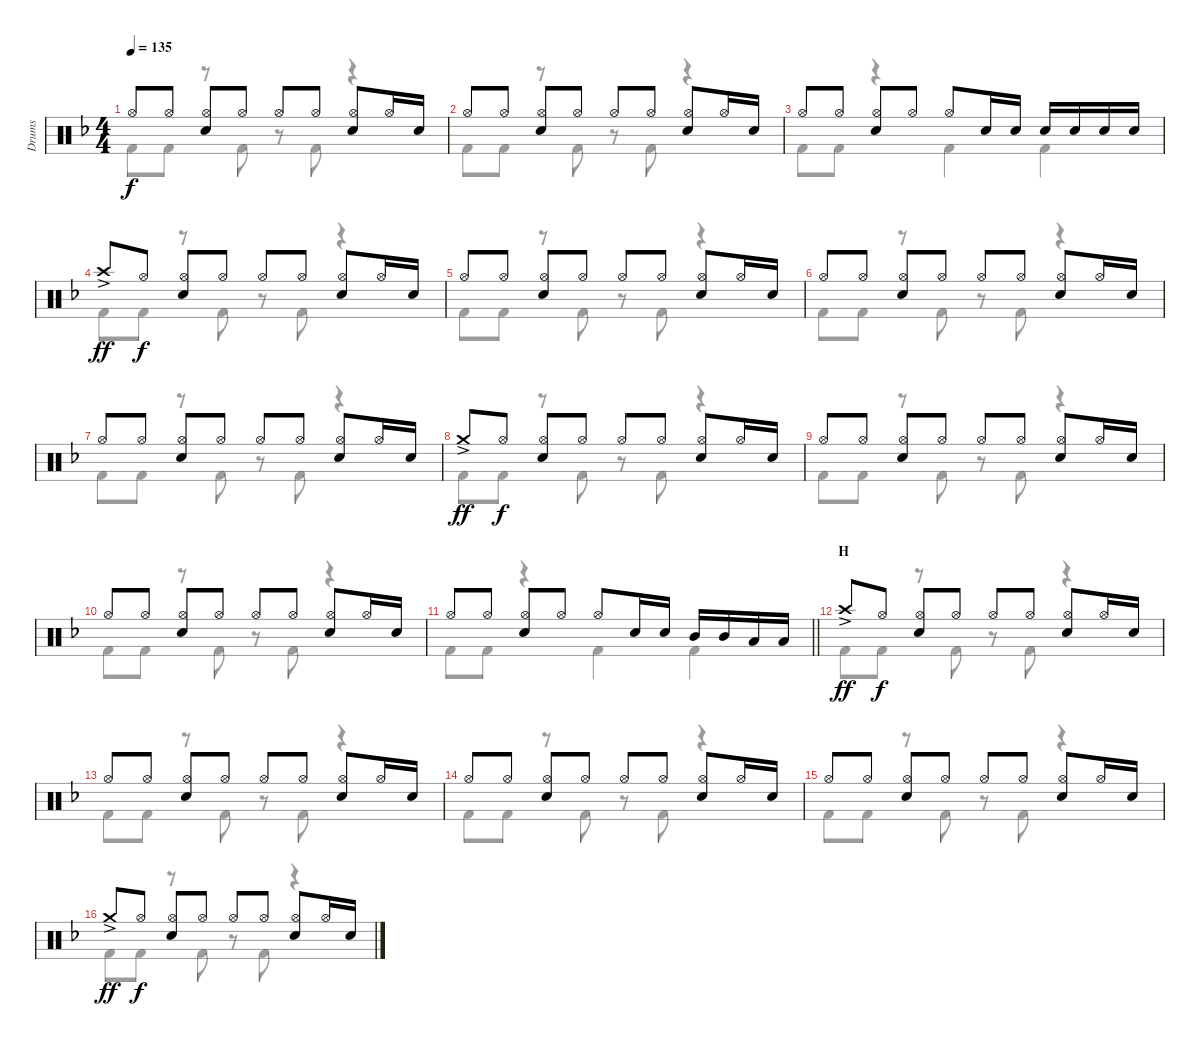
\track ("Drums" "Drums") {instrument percussion}
\staff {score}
\articulation defaults
\voice
\ts (4 4)
\tempo 135
\clef neutral
\ks f "Hi-Hat (open)".8{dy f} "Hi-Hat (open)".8
("Hi-Hat (open)" "Snare (hit) 2").8 "Hi-Hat (open)".8 "Hi-Hat (open)".8 "Hi-Hat (open)".8 ("Hi-Hat (open)" "Snare (hit) 2").8 "Hi-Hat (open)".16 "Snare (hit) 2".16 |
"Hi-Hat (open)".8 "Hi-Hat (open)".8 ("Hi-Hat (open)" "Snare (hit) 2").8 "Hi-Hat (open)".8 "Hi-Hat (open)".8 "Hi-Hat (open)".8 ("Hi-Hat (open)" "Snare (hit) 2").8 "Hi-Hat (open)".16 "Snare (hit) 2".16 |
"Hi-Hat (open)".8 "Hi-Hat (open)".8 ("Hi-Hat (open)" "Snare (hit) 2").8 "Hi-Hat (open)".8 "Hi-Hat (open)".8 "Snare (hit) 2".16 "Snare (hit) 2".16 "Snare (hit) 2".16 "Snare (hit) 2".16 "Snare (hit) 2".16 "Snare (hit) 2".16 |
"Crash high (hit)"{ac}.8{dy ff} "Hi-Hat (open)".8{dy f} ("Hi-Hat (open)" "Snare (hit) 2").8 "Hi-Hat (open)".8 "Hi-Hat (open)".8 "Hi-Hat (open)".8 ("Hi-Hat (open)" "Snare (hit) 2").8 "Hi-Hat (open)".16 "Snare (hit) 2".16 |
"Hi-Hat (open)".8 "Hi-Hat (open)".8 ("Hi-Hat (open)" "Snare (hit) 2").8 "Hi-Hat (open)".8 "Hi-Hat (open)".8 "Hi-Hat (open)".8 ("Hi-Hat (open)" "Snare (hit) 2").8 "Hi-Hat (open)".16 "Snare (hit) 2".16 |
"Hi-Hat (open)".8 "Hi-Hat (open)".8 ("Hi-Hat (open)" "Snare (hit) 2").8 "Hi-Hat (open)".8 "Hi-Hat (open)".8 "Hi-Hat (open)".8 ("Hi-Hat (open)" "Snare (hit) 2").8 "Hi-Hat (open)".16 "Snare (hit) 2".16 |
"Hi-Hat (open)".8 "Hi-Hat (open)".8 ("Hi-Hat (open)" "Snare (hit) 2").8 "Hi-Hat (open)".8 "Hi-Hat (open)".8 "Hi-Hat (open)".8 ("Hi-Hat (open)" "Snare (hit) 2").8 "Hi-Hat (open)".16 "Snare (hit) 2".16 |
"Crash medium (hit)"{ac}.8{dy ff} "Hi-Hat (open)".8{dy f} ("Hi-Hat (open)" "Snare (hit) 2").8 "Hi-Hat (open)".8 "Hi-Hat (open)".8 "Hi-Hat (open)".8 ("Hi-Hat (open)" "Snare (hit) 2").8 "Hi-Hat (open)".16 "Snare (hit) 2".16 |
"Hi-Hat (open)".8 "Hi-Hat (open)".8 ("Hi-Hat (open)" "Snare (hit) 2").8 "Hi-Hat (open)".8 "Hi-Hat (open)".8 "Hi-Hat (open)".8 ("Hi-Hat (open)" "Snare (hit) 2").8 "Hi-Hat (open)".16 "Snare (hit) 2".16 |
"Hi-Hat (open)".8 "Hi-Hat (open)".8 ("Hi-Hat (open)" "Snare (hit) 2").8 "Hi-Hat (open)".8 "Hi-Hat (open)".8 "Hi-Hat (open)".8 ("Hi-Hat (open)" "Snare (hit) 2").8 "Hi-Hat (open)".16 "Snare (hit) 2".16 |
\barLineRight lightlight "Hi-Hat (open)".8 "Hi-Hat (open)".8
("Hi-Hat (open)" "Snare (hit) 2").8 "Hi-Hat (open)".8 "Hi-Hat (open)".8 "Snare (hit) 2".16 "Snare (hit) 2".16 "Mid Tom (hit)".16 "Mid Tom (hit)".16 "Low Tom (hit)".16 "Low Tom (hit)".16 |
\section ("" "H")
"Crash high (hit)"{ac}.8{dy ff} "Hi-Hat (open)".8{dy f} ("Hi-Hat (open)" "Snare (hit) 2").8 "Hi-Hat (open)".8 "Hi-Hat (open)".8 "Hi-Hat (open)".8 ("Hi-Hat (open)" "Snare (hit) 2").8 "Hi-Hat (open)".16 "Snare (hit) 2".16 |
"Hi-Hat (open)".8 "Hi-Hat (open)".8 ("Hi-Hat (open)" "Snare (hit) 2").8 "Hi-Hat (open)".8 "Hi-Hat (open)".8 "Hi-Hat (open)".8 ("Hi-Hat (open)" "Snare (hit) 2").8 "Hi-Hat (open)".16 "Snare (hit) 2".16 |
"Hi-Hat (open)".8 "Hi-Hat (open)".8 ("Hi-Hat (open)" "Snare (hit) 2").8 "Hi-Hat (open)".8 "Hi-Hat (open)".8 "Hi-Hat (open)".8 ("Hi-Hat (open)" "Snare (hit) 2").8 "Hi-Hat (open)".16 "Snare (hit) 2".16 |
"Hi-Hat (open)".8 "Hi-Hat (open)".8 ("Hi-Hat (open)" "Snare (hit) 2").8 "Hi-Hat (open)".8 "Hi-Hat (open)".8 "Hi-Hat (open)".8 ("Hi-Hat (open)" "Snare (hit) 2").8 "Hi-Hat (open)".16 "Snare (hit) 2".16 |
"Crash medium (hit)"{ac}.8{dy ff} "Hi-Hat (open)".8{dy f} ("Hi-Hat (open)" "Snare (hit) 2").8 "Hi-Hat (open)".8 "Hi-Hat (open)".8 "Hi-Hat (open)".8 ("Hi-Hat (open)" "Snare (hit) 2").8 "Hi-Hat (open)".16 "Snare (hit) 2".16
\voice
\clef neutral
\ottava regular
\simile none
\ks f "Kick (hit) 2".8{dy f} "Kick (hit) 2".8
r.8 "Kick (hit) 2".8 r.8 "Kick (hit) 2".8 r.4 |
"Kick (hit) 2".8 "Kick (hit) 2".8 r.8 "Kick (hit) 2".8 r.8 "Kick (hit) 2".8 r.4 |
"Kick (hit) 2".8 "Kick (hit) 2".8 r.4 "Kick (hit) 2".4 "Kick (hit) 2".4 |
"Kick (hit) 2".8 "Kick (hit) 2".8 r.8 "Kick (hit) 2".8 r.8 "Kick (hit) 2".8 r.4 |
"Kick (hit) 2".8 "Kick (hit) 2".8 r.8 "Kick (hit) 2".8 r.8 "Kick (hit) 2".8 r.4 |
"Kick (hit) 2".8 "Kick (hit) 2".8 r.8 "Kick (hit) 2".8 r.8 "Kick (hit) 2".8 r.4 |
"Kick (hit) 2".8 "Kick (hit) 2".8 r.8 "Kick (hit) 2".8 r.8 "Kick (hit) 2".8 r.4 |
"Kick (hit) 2".8 "Kick (hit) 2".8 r.8 "Kick (hit) 2".8 r.8 "Kick (hit) 2".8 r.4 |
"Kick (hit) 2".8 "Kick (hit) 2".8 r.8 "Kick (hit) 2".8 r.8 "Kick (hit) 2".8 r.4 |
"Kick (hit) 2".8 "Kick (hit) 2".8 r.8 "Kick (hit) 2".8 r.8 "Kick (hit) 2".8 r.4 |
\barLineRight lightlight "Kick (hit) 2".8 "Kick (hit) 2".8
r.4 "Kick (hit) 2".4 "Kick (hit) 2".4 |
"Kick (hit) 2".8 "Kick (hit) 2".8 r.8 "Kick (hit) 2".8 r.8 "Kick (hit) 2".8 r.4 |
"Kick (hit) 2".8 "Kick (hit) 2".8 r.8 "Kick (hit) 2".8 r.8 "Kick (hit) 2".8 r.4 |
"Kick (hit) 2".8 "Kick (hit) 2".8 r.8 "Kick (hit) 2".8 r.8 "Kick (hit) 2".8 r.4 |
"Kick (hit) 2".8 "Kick (hit) 2".8 r.8 "Kick (hit) 2".8 r.8 "Kick (hit) 2".8 r.4 |
"Kick (hit) 2".8 "Kick (hit) 2".8 r.8 "Kick (hit) 2".8 r.8 "Kick (hit) 2".8 r.4
